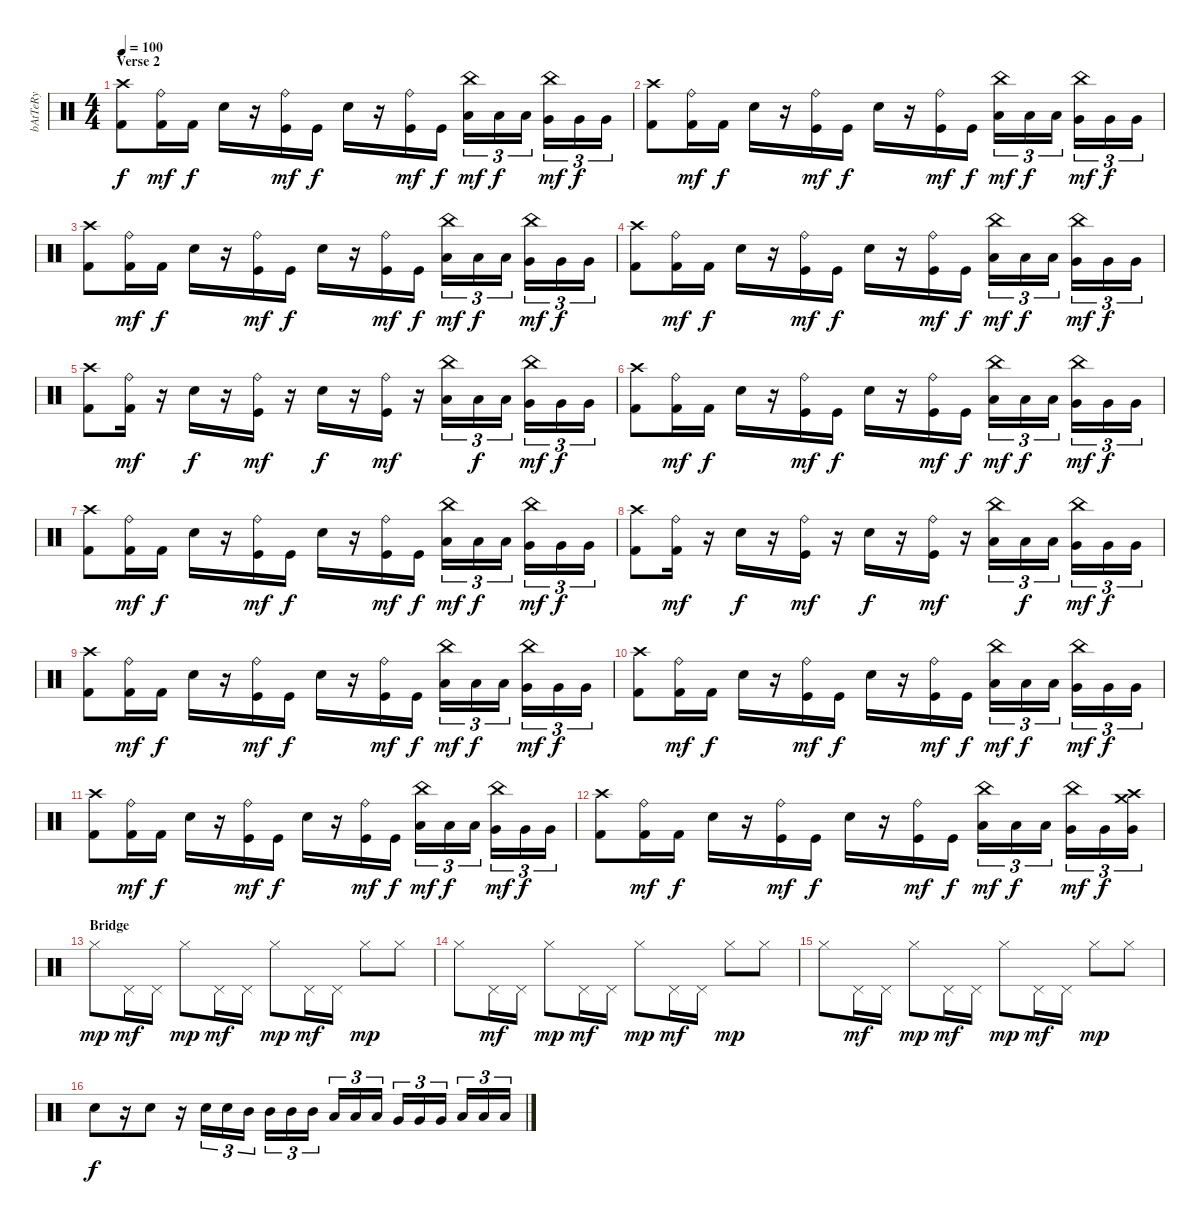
\track ("bAtTeRy" "bAtTeRy") {instrument percussion}
\staff {score}
\articulation defaults
\ts (4 4)
\section ("" "Verse 2")
\tempo 100
\clef neutral
\ks c
("Crash high (hit)" "Kick (hit) 2").8{dy f} ("Ride (bell)" "Kick (hit) 2").16{dy mf} "Kick (hit) 2".16{dy f} "Snare (hit) 2".16 r.16 ("Ride (bell)" "Kick (hit)").16{dy mf} "Kick (hit)".16{dy f} "Snare (hit) 2".16 r.16 ("Ride (bell)" "Kick (hit)").16{dy mf} "Kick (hit)".16{dy f} ("China (hit)" "Low Tom (hit)").16{tu (3 2) dy mf} "Low Tom (hit)".16{tu (3 2) dy f} "Low Tom (hit)".16{tu (3 2)} ("China (hit)" "Very Low Tom (hit)").16{tu (3 2) dy mf} "Very Low Tom (hit)".16{tu (3 2) dy f} "Very Low Tom (hit)".16{tu (3 2)} |
("Crash high (hit)" "Kick (hit) 2").8 ("Ride (bell)" "Kick (hit) 2").16{dy mf} "Kick (hit) 2".16{dy f} "Snare (hit) 2".16 r.16 ("Ride (bell)" "Kick (hit)").16{dy mf} "Kick (hit)".16{dy f} "Snare (hit) 2".16 r.16 ("Ride (bell)" "Kick (hit)").16{dy mf} "Kick (hit)".16{dy f} ("China (hit)" "Low Tom (hit)").16{tu (3 2) dy mf} "Low Tom (hit)".16{tu (3 2) dy f} "Low Tom (hit)".16{tu (3 2)} ("China (hit)" "Very Low Tom (hit)").16{tu (3 2) dy mf} "Very Low Tom (hit)".16{tu (3 2) dy f} "Very Low Tom (hit)".16{tu (3 2)} |
("Crash high (hit)" "Kick (hit) 2").8 ("Ride (bell)" "Kick (hit) 2").16{dy mf} "Kick (hit) 2".16{dy f} "Snare (hit) 2".16 r.16 ("Ride (bell)" "Kick (hit)").16{dy mf} "Kick (hit)".16{dy f} "Snare (hit) 2".16 r.16 ("Ride (bell)" "Kick (hit)").16{dy mf} "Kick (hit)".16{dy f} ("China (hit)" "Low Tom (hit)").16{tu (3 2) dy mf} "Low Tom (hit)".16{tu (3 2) dy f} "Low Tom (hit)".16{tu (3 2)} ("China (hit)" "Very Low Tom (hit)").16{tu (3 2) dy mf} "Very Low Tom (hit)".16{tu (3 2) dy f} "Very Low Tom (hit)".16{tu (3 2)} |
("Crash high (hit)" "Kick (hit) 2").8 ("Ride (bell)" "Kick (hit) 2").16{dy mf} "Kick (hit) 2".16{dy f} "Snare (hit) 2".16 r.16 ("Ride (bell)" "Kick (hit)").16{dy mf} "Kick (hit)".16{dy f} "Snare (hit) 2".16 r.16 ("Ride (bell)" "Kick (hit)").16{dy mf} "Kick (hit)".16{dy f} ("China (hit)" "Low Tom (hit)").16{tu (3 2) dy mf} "Low Tom (hit)".16{tu (3 2) dy f} "Low Tom (hit)".16{tu (3 2)} ("China (hit)" "Very Low Tom (hit)").16{tu (3 2) dy mf} "Very Low Tom (hit)".16{tu (3 2) dy f} "Very Low Tom (hit)".16{tu (3 2)} |
("Crash high (hit)" "Kick (hit) 2").8 ("Ride (bell)" "Kick (hit) 2").16{dy mf} r.16 "Snare (hit) 2".16{dy f} r.16 ("Ride (bell)" "Kick (hit)").16{dy mf} r.16 "Snare (hit) 2".16{dy f} r.16 ("Ride (bell)" "Kick (hit)").16{dy mf} r.16 ("China (hit)" "Low Tom (hit)").16{tu (3 2)} "Low Tom (hit)".16{tu (3 2) dy f} "Low Tom (hit)".16{tu (3 2)} ("China (hit)" "Very Low Tom (hit)").16{tu (3 2) dy mf} "Very Low Tom (hit)".16{tu (3 2) dy f} "Very Low Tom (hit)".16{tu (3 2)} |
("Crash high (hit)" "Kick (hit) 2").8 ("Ride (bell)" "Kick (hit) 2").16{dy mf} "Kick (hit) 2".16{dy f} "Snare (hit) 2".16 r.16 ("Ride (bell)" "Kick (hit)").16{dy mf} "Kick (hit)".16{dy f} "Snare (hit) 2".16 r.16 ("Ride (bell)" "Kick (hit)").16{dy mf} "Kick (hit)".16{dy f} ("China (hit)" "Low Tom (hit)").16{tu (3 2) dy mf} "Low Tom (hit)".16{tu (3 2) dy f} "Low Tom (hit)".16{tu (3 2)} ("China (hit)" "Very Low Tom (hit)").16{tu (3 2) dy mf} "Very Low Tom (hit)".16{tu (3 2) dy f} "Very Low Tom (hit)".16{tu (3 2)} |
("Crash high (hit)" "Kick (hit) 2").8 ("Ride (bell)" "Kick (hit) 2").16{dy mf} "Kick (hit) 2".16{dy f} "Snare (hit) 2".16 r.16 ("Ride (bell)" "Kick (hit)").16{dy mf} "Kick (hit)".16{dy f} "Snare (hit) 2".16 r.16 ("Ride (bell)" "Kick (hit)").16{dy mf} "Kick (hit)".16{dy f} ("China (hit)" "Low Tom (hit)").16{tu (3 2) dy mf} "Low Tom (hit)".16{tu (3 2) dy f} "Low Tom (hit)".16{tu (3 2)} ("China (hit)" "Very Low Tom (hit)").16{tu (3 2) dy mf} "Very Low Tom (hit)".16{tu (3 2) dy f} "Very Low Tom (hit)".16{tu (3 2)} |
("Crash high (hit)" "Kick (hit) 2").8 ("Ride (bell)" "Kick (hit) 2").16{dy mf} r.16 "Snare (hit) 2".16{dy f} r.16 ("Ride (bell)" "Kick (hit)").16{dy mf} r.16 "Snare (hit) 2".16{dy f} r.16 ("Ride (bell)" "Kick (hit)").16{dy mf} r.16 ("China (hit)" "Low Tom (hit)").16{tu (3 2)} "Low Tom (hit)".16{tu (3 2) dy f} "Low Tom (hit)".16{tu (3 2)} ("China (hit)" "Very Low Tom (hit)").16{tu (3 2) dy mf} "Very Low Tom (hit)".16{tu (3 2) dy f} "Very Low Tom (hit)".16{tu (3 2)} |
("Crash high (hit)" "Kick (hit) 2").8 ("Ride (bell)" "Kick (hit) 2").16{dy mf} "Kick (hit) 2".16{dy f} "Snare (hit) 2".16 r.16 ("Ride (bell)" "Kick (hit)").16{dy mf} "Kick (hit)".16{dy f} "Snare (hit) 2".16 r.16 ("Ride (bell)" "Kick (hit)").16{dy mf} "Kick (hit)".16{dy f} ("China (hit)" "Low Tom (hit)").16{tu (3 2) dy mf} "Low Tom (hit)".16{tu (3 2) dy f} "Low Tom (hit)".16{tu (3 2)} ("China (hit)" "Very Low Tom (hit)").16{tu (3 2) dy mf} "Very Low Tom (hit)".16{tu (3 2) dy f} "Very Low Tom (hit)".16{tu (3 2)} |
("Crash high (hit)" "Kick (hit) 2").8 ("Ride (bell)" "Kick (hit) 2").16{dy mf} "Kick (hit) 2".16{dy f} "Snare (hit) 2".16 r.16 ("Ride (bell)" "Kick (hit)").16{dy mf} "Kick (hit)".16{dy f} "Snare (hit) 2".16 r.16 ("Ride (bell)" "Kick (hit)").16{dy mf} "Kick (hit)".16{dy f} ("China (hit)" "Low Tom (hit)").16{tu (3 2) dy mf} "Low Tom (hit)".16{tu (3 2) dy f} "Low Tom (hit)".16{tu (3 2)} ("China (hit)" "Very Low Tom (hit)").16{tu (3 2) dy mf} "Very Low Tom (hit)".16{tu (3 2) dy f} "Very Low Tom (hit)".16{tu (3 2)} |
("Crash high (hit)" "Kick (hit) 2").8 ("Ride (bell)" "Kick (hit) 2").16{dy mf} "Kick (hit) 2".16{dy f} "Snare (hit) 2".16 r.16 ("Ride (bell)" "Kick (hit)").16{dy mf} "Kick (hit)".16{dy f} "Snare (hit) 2".16 r.16 ("Ride (bell)" "Kick (hit)").16{dy mf} "Kick (hit)".16{dy f} ("China (hit)" "Low Tom (hit)").16{tu (3 2) dy mf} "Low Tom (hit)".16{tu (3 2) dy f} "Low Tom (hit)".16{tu (3 2)} ("China (hit)" "Very Low Tom (hit)").16{tu (3 2) dy mf} "Very Low Tom (hit)".16{tu (3 2) dy f} "Very Low Tom (hit)".16{tu (3 2)} |
("Crash high (hit)" "Kick (hit) 2").8 ("Ride (bell)" "Kick (hit) 2").16{dy mf} "Kick (hit) 2".16{dy f} "Snare (hit) 2".16 r.16 ("Ride (bell)" "Kick (hit)").16{dy mf} "Kick (hit)".16{dy f} "Snare (hit) 2".16 r.16 ("Ride (bell)" "Kick (hit)").16{dy mf} "Kick (hit)".16{dy f} ("China (hit)" "Low Tom (hit)").16{tu (3 2) dy mf} "Low Tom (hit)".16{tu (3 2) dy f} "Low Tom (hit)".16{tu (3 2)} ("China (hit)" "Very Low Tom (hit)").16{tu (3 2) dy mf} "Very Low Tom (hit)".16{tu (3 2) dy f} ("Crash high (hit)" "Crash medium (hit)" "Very Low Tom (hit)").16{tu (3 2)} |
\section ("" "Bridge")
"Hi-Hat (closed)".8{dy mp} "Pedal Hi-Hat (hit)".16{dy mf} "Pedal Hi-Hat (hit)".16 "Hi-Hat (closed)".8{dy mp} "Pedal Hi-Hat (hit)".16{dy mf} "Pedal Hi-Hat (hit)".16 "Hi-Hat (closed)".8{dy mp} "Pedal Hi-Hat (hit)".16{dy mf} "Pedal Hi-Hat (hit)".16 "Hi-Hat (closed)".8{dy mp} "Hi-Hat (closed)".8 |
"Hi-Hat (closed)".8 "Pedal Hi-Hat (hit)".16{dy mf} "Pedal Hi-Hat (hit)".16 "Hi-Hat (closed)".8{dy mp} "Pedal Hi-Hat (hit)".16{dy mf} "Pedal Hi-Hat (hit)".16 "Hi-Hat (closed)".8{dy mp} "Pedal Hi-Hat (hit)".16{dy mf} "Pedal Hi-Hat (hit)".16 "Hi-Hat (closed)".8{dy mp} "Hi-Hat (closed)".8 |
"Hi-Hat (closed)".8 "Pedal Hi-Hat (hit)".16{dy mf} "Pedal Hi-Hat (hit)".16 "Hi-Hat (closed)".8{dy mp} "Pedal Hi-Hat (hit)".16{dy mf} "Pedal Hi-Hat (hit)".16 "Hi-Hat (closed)".8{dy mp} "Pedal Hi-Hat (hit)".16{dy mf} "Pedal Hi-Hat (hit)".16 "Hi-Hat (closed)".8{dy mp} "Hi-Hat (closed)".8 |
"Snare (hit) 2".8{dy f} r.16 "Snare (hit) 2".8 r.16 "Electric Snare (hit)".16{tu (3 2)} "Electric Snare (hit)".16{tu (3 2)} "Mid Tom (hit)".16{tu (3 2)} "Mid Tom (hit)".16{tu (3 2)} "Mid Tom (hit)".16{tu (3 2)} "Mid Tom (hit)".16{tu (3 2)} "Low Tom (hit)".16{tu (3 2)} "Low Tom (hit)".16{tu (3 2)} "Low Tom (hit)".16{tu (3 2)} "Very Low Tom (hit)".16{tu (3 2)} "Very Low Tom (hit)".16{tu (3 2)} "Very Low Tom (hit)".16{tu (3 2)} "Low Floor Tom (hit)".16{tu (3 2)} "Low Floor Tom (hit)".16{tu (3 2)} "Low Floor Tom (hit)".16{tu (3 2)}
